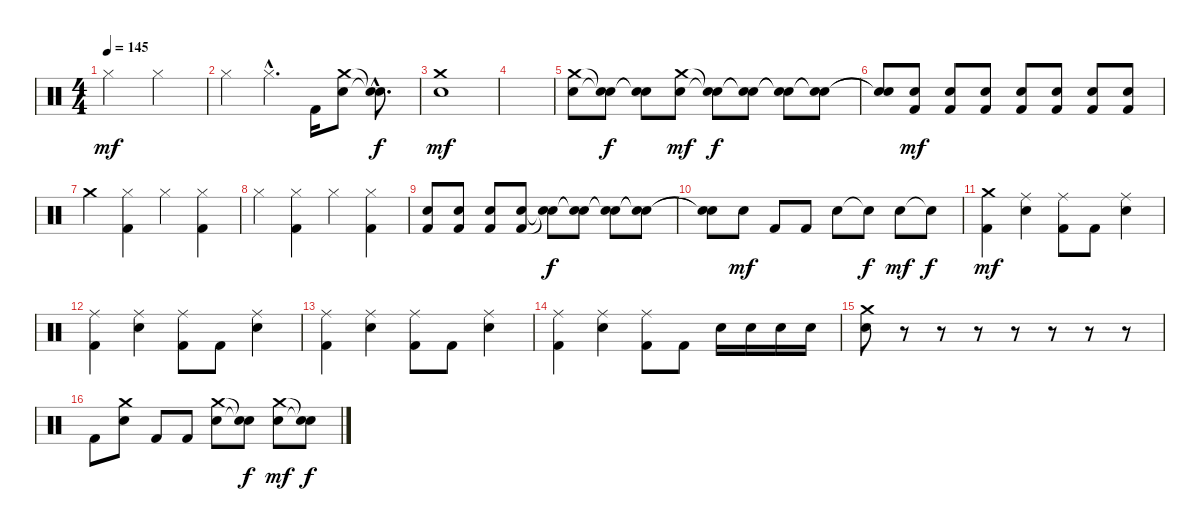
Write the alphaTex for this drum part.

\track "" {instrument percussion}
\staff {score}
\articulation defaults
\ts (4 4)
\tempo 145
\clef neutral
\ks c "Hi-Hat (closed)".2{dy mf} "Hi-Hat (closed)".2
|
"Hi-Hat (closed)".4 "Hi-Hat (closed)"{hac}.4{d} "Kick (hit) 2".16 ("Crash medium (hit)" "Snare (hit) 2").8 ("Snare (hit)"{hac t} "Snare (hit)"{hac t}).8{d dy f} |
("Crash medium (hit)" "Snare (hit) 2").1{dy mf} |
|
("Crash medium (hit)" "Snare (hit) 2").8 ("Snare (hit)"{t} "Snare (hit)"{t}).8{dy f} ("Snare (hit)"{t} "Snare (hit)"{t}).8 ("Crash medium (hit)" "Snare (hit) 2").8{dy mf} ("Snare (hit)"{t} "Snare (hit)"{t}).8{dy f} ("Snare (hit)"{t} "Snare (hit)"{t}).8 ("Snare (hit)"{t} "Snare (hit)"{t}).8 ("Snare (hit)"{t} "Snare (hit)"{t}).8 |
("Snare (hit)"{t} "Snare (hit)"{t}).8 ("Snare (hit) 2" "Kick (hit) 2").8{dy mf} ("Snare (hit) 2" "Kick (hit) 2").8 ("Snare (hit) 2" "Kick (hit) 2").8 ("Snare (hit) 2" "Kick (hit) 2").8 ("Snare (hit) 2" "Kick (hit) 2").8 ("Snare (hit) 2" "Kick (hit) 2").8 ("Snare (hit) 2" "Kick (hit) 2").8 |
"Crash medium (hit)".4 ("Hi-Hat (closed)" "Kick (hit) 2").4 "Hi-Hat (closed)".4 ("Hi-Hat (closed)" "Kick (hit) 2").4 |
"Hi-Hat (closed)".4 ("Hi-Hat (closed)" "Kick (hit) 2").4 "Hi-Hat (closed)".4 ("Hi-Hat (closed)" "Kick (hit) 2").4 |
("Snare (hit) 2" "Kick (hit) 2").8 ("Snare (hit) 2" "Kick (hit) 2").8 ("Snare (hit) 2" "Kick (hit) 2").8 ("Snare (hit) 2" "Kick (hit) 2").8 ("Snare (hit)"{t} "Snare (hit)"{t}).8{dy f} ("Snare (hit)"{t} "Snare (hit)"{t}).8 ("Snare (hit)"{t} "Snare (hit)"{t}).8 ("Snare (hit)"{t} "Snare (hit)"{t}).8 |
("Snare (hit)"{t} "Snare (hit)"{t}).8 "Snare (hit) 2".8{dy mf} "Kick (hit) 2".8 "Kick (hit) 2".8 "Snare (hit) 2".8 "Snare (hit)"{t}.8{dy f} "Snare (hit) 2".8{dy mf} "Snare (hit)"{t}.8{dy f} |
("Crash medium (hit)" "Kick (hit) 2").4{dy mf} ("Ride (middle)" "Snare (hit) 2").4 ("Ride (middle)" "Kick (hit) 2").8 "Kick (hit) 2".8 ("Ride (middle)" "Snare (hit) 2").4 |
("Ride (middle)" "Kick (hit) 2").4 ("Ride (middle)" "Snare (hit) 2").4 ("Ride (middle)" "Kick (hit) 2").8 "Kick (hit) 2".8 ("Ride (middle)" "Snare (hit) 2").4 |
("Ride (middle)" "Kick (hit) 2").4 ("Ride (middle)" "Snare (hit) 2").4 ("Ride (middle)" "Kick (hit) 2").8 "Kick (hit) 2".8 ("Ride (middle)" "Snare (hit) 2").4 |
("Ride (middle)" "Kick (hit) 2").4 ("Ride (middle)" "Snare (hit) 2").4 ("Ride (middle)" "Kick (hit) 2").8 "Kick (hit) 2".8 "Snare (hit) 2".16 "Snare (hit) 2".16 "Snare (hit) 2".16 "Snare (hit) 2".16 |
("Crash medium (hit)" "Snare (hit) 2").8 r.8 r.8 r.8 r.8 r.8 r.8 r.8 |
"Kick (hit) 2".8 ("Crash medium (hit)" "Snare (hit) 2").8 "Kick (hit) 2".8 "Kick (hit) 2".8 ("Crash medium (hit)" "Snare (hit) 2").8 ("Snare (hit)"{t} "Snare (hit)"{t}).8{dy f} ("Crash medium (hit)" "Snare (hit) 2").8{dy mf} ("Snare (hit)"{t} "Snare (hit)"{t}).8{dy f}
